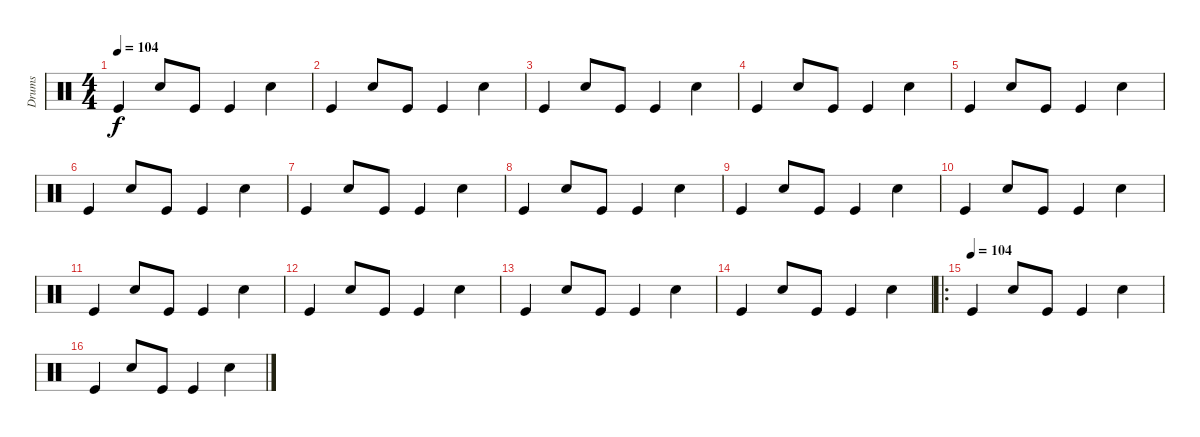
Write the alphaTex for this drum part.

\track ("Drums" "Drums") {instrument percussion}
\staff {score}
\articulation defaults
\ts (4 4)
\tempo 104
\clef neutral
\ks c "Kick (hit)".4{dy f} "Snare (hit) 2".8 "Kick (hit)".8 "Kick (hit)".4 "Snare (hit) 2".4
|
"Kick (hit)".4 "Snare (hit) 2".8 "Kick (hit)".8 "Kick (hit)".4 "Snare (hit) 2".4 |
"Kick (hit)".4 "Snare (hit) 2".8 "Kick (hit)".8 "Kick (hit)".4 "Snare (hit) 2".4 |
"Kick (hit)".4 "Snare (hit) 2".8 "Kick (hit)".8 "Kick (hit)".4 "Snare (hit) 2".4 |
"Kick (hit)".4 "Snare (hit) 2".8 "Kick (hit)".8 "Kick (hit)".4 "Snare (hit) 2".4 |
"Kick (hit)".4 "Snare (hit) 2".8 "Kick (hit)".8 "Kick (hit)".4 "Snare (hit) 2".4 |
"Kick (hit)".4 "Snare (hit) 2".8 "Kick (hit)".8 "Kick (hit)".4 "Snare (hit) 2".4 |
"Kick (hit)".4 "Snare (hit) 2".8 "Kick (hit)".8 "Kick (hit)".4 "Snare (hit) 2".4 |
"Kick (hit)".4 "Snare (hit) 2".8 "Kick (hit)".8 "Kick (hit)".4 "Snare (hit) 2".4 |
"Kick (hit)".4 "Snare (hit) 2".8 "Kick (hit)".8 "Kick (hit)".4 "Snare (hit) 2".4 |
"Kick (hit)".4 "Snare (hit) 2".8 "Kick (hit)".8 "Kick (hit)".4 "Snare (hit) 2".4 |
"Kick (hit)".4 "Snare (hit) 2".8 "Kick (hit)".8 "Kick (hit)".4 "Snare (hit) 2".4 |
"Kick (hit)".4 "Snare (hit) 2".8 "Kick (hit)".8 "Kick (hit)".4 "Snare (hit) 2".4 |
"Kick (hit)".4 "Snare (hit) 2".8 "Kick (hit)".8 "Kick (hit)".4 "Snare (hit) 2".4 |
\ro
\tempo (104)
"Kick (hit)".4 "Snare (hit) 2".8 "Kick (hit)".8 "Kick (hit)".4 "Snare (hit) 2".4 |
"Kick (hit)".4 "Snare (hit) 2".8 "Kick (hit)".8 "Kick (hit)".4 "Snare (hit) 2".4
